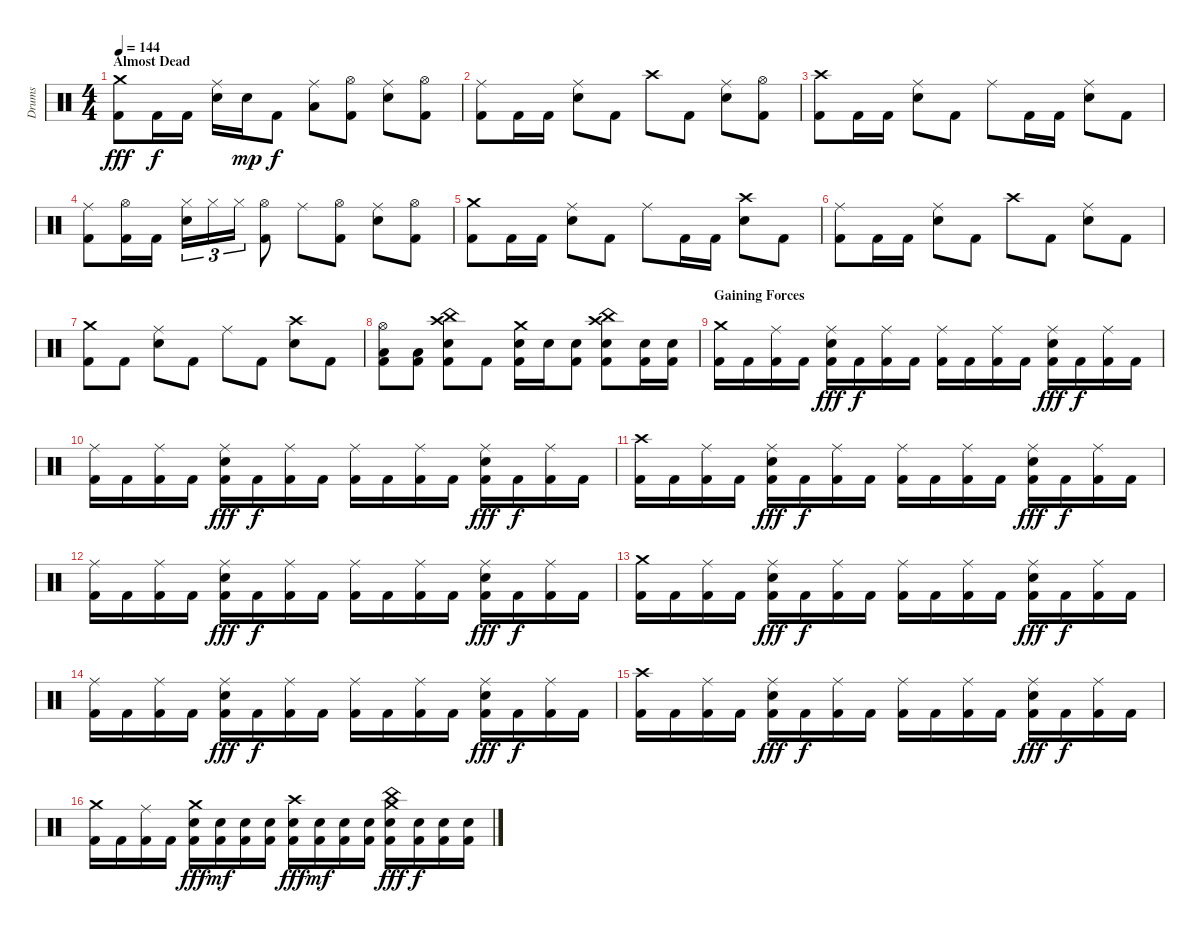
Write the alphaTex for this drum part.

\track ("Drums" "Drums") {instrument percussion}
\staff {score}
\articulation defaults
\ts (4 4)
\section ("" "Almost Dead")
\tempo 144
\clef neutral
\ks c
("Crash medium (hit)" "Kick (hit) 2").8{dy fff} "Kick (hit) 2".16{dy f} "Kick (hit) 2".16 ("Ride (middle)" "Snare (hit) 2").16 "Snare (hit) 2".16{dy mp} "Kick (hit) 2".8{dy f} ("Ride (middle)" "Low Tom (hit)").8 ("Hi-Hat (open)" "Kick (hit) 2").8 ("Ride (middle)" "Snare (hit) 2").8 ("Hi-Hat (open)" "Kick (hit) 2").8 |
("Ride (middle)" "Kick (hit) 2").8 "Kick (hit) 2".16 "Kick (hit) 2".16 ("Ride (middle)" "Snare (hit) 2").8 "Kick (hit) 2".8 "Crash high (hit)".8 "Kick (hit) 2".8 ("Ride (middle)" "Snare (hit) 2").8 ("Hi-Hat (open)" "Kick (hit) 2").8 |
("Crash high (hit)" "Kick (hit) 2").8 "Kick (hit) 2".16 "Kick (hit) 2".16 ("Ride (middle)" "Snare (hit) 2").8 "Kick (hit) 2".8 "Ride (middle)".8 "Kick (hit) 2".16 "Kick (hit) 2".16 ("Ride (middle)" "Snare (hit) 2").8 "Kick (hit) 2".8 |
("Ride (middle)" "Kick (hit) 2").8 ("Hi-Hat (open)" "Kick (hit) 2").16 "Kick (hit) 2".16 ("Hi-Hat (closed)" "Snare (hit) 2").16{tu (3 2)} "Hi-Hat (closed)".16{tu (3 2)} "Hi-Hat (closed)".16{tu (3 2)} ("Hi-Hat (open)" "Kick (hit) 2").8 "Ride (middle)".8 ("Hi-Hat (open)" "Kick (hit) 2").8 ("Ride (middle)" "Snare (hit) 2").8 ("Hi-Hat (open)" "Kick (hit) 2").8 |
("Crash medium (hit)" "Kick (hit) 2").8 "Kick (hit) 2".16 "Kick (hit) 2".16 ("Ride (middle)" "Snare (hit) 2").8 "Kick (hit) 2".8 "Ride (middle)".8 "Kick (hit) 2".16 "Kick (hit) 2".16 ("Crash high (hit)" "Snare (hit) 2").8 "Kick (hit) 2".8 |
("Ride (middle)" "Kick (hit) 2").8 "Kick (hit) 2".16 "Kick (hit) 2".16 ("Ride (middle)" "Snare (hit) 2").8 "Kick (hit) 2".8 "Crash high (hit)".8 "Kick (hit) 2".8 ("Ride (middle)" "Snare (hit) 2").8 "Kick (hit) 2".8 |
("Crash medium (hit)" "Kick (hit) 2").8 "Kick (hit) 2".8 ("Ride (middle)" "Snare (hit) 2").8 "Kick (hit) 2".8 "Ride (middle)".8 "Kick (hit) 2".8 ("Crash high (hit)" "Snare (hit) 2").8 "Kick (hit) 2".8 |
("Hi-Hat (open)" "Low Tom (hit)" "Kick (hit) 2").8 ("Low Tom (hit)" "Kick (hit) 2").8 ("Crash high (hit)" "China (hit)" "Snare (hit) 2" "Kick (hit) 2").8 "Kick (hit) 2".8 ("Crash medium (hit)" "Snare (hit) 2" "Kick (hit) 2").16 "Snare (hit) 2".16 ("Snare (hit) 2" "Kick (hit) 2").8 ("Crash high (hit)" "China (hit)" "Snare (hit) 2" "Kick (hit) 2").8 ("Snare (hit) 2" "Kick (hit) 2").16 ("Snare (hit) 2" "Kick (hit) 2").16 |
\section ("" "Gaining Forces")
("Crash medium (hit)" "Kick (hit) 2").16 "Kick (hit) 2".16 ("Ride (middle)" "Kick (hit) 2").16 "Kick (hit) 2".16 ("Ride (middle)" "Snare (hit) 2" "Kick (hit) 2").16{dy fff} "Kick (hit) 2".16{dy f} ("Ride (middle)" "Kick (hit) 2").16 "Kick (hit) 2".16 ("Ride (middle)" "Kick (hit) 2").16 "Kick (hit) 2".16 ("Ride (middle)" "Kick (hit) 2").16 "Kick (hit) 2".16 ("Ride (middle)" "Snare (hit) 2" "Kick (hit) 2").16{dy fff} "Kick (hit) 2".16{dy f} ("Ride (middle)" "Kick (hit) 2").16 "Kick (hit) 2".16 |
("Ride (middle)" "Kick (hit) 2").16 "Kick (hit) 2".16 ("Ride (middle)" "Kick (hit) 2").16 "Kick (hit) 2".16 ("Ride (middle)" "Snare (hit) 2" "Kick (hit) 2").16{dy fff} "Kick (hit) 2".16{dy f} ("Ride (middle)" "Kick (hit) 2").16 "Kick (hit) 2".16 ("Ride (middle)" "Kick (hit) 2").16 "Kick (hit) 2".16 ("Ride (middle)" "Kick (hit) 2").16 "Kick (hit) 2".16 ("Ride (middle)" "Snare (hit) 2" "Kick (hit) 2").16{dy fff} "Kick (hit) 2".16{dy f} ("Ride (middle)" "Kick (hit) 2").16 "Kick (hit) 2".16 |
("Crash high (hit)" "Kick (hit) 2").16 "Kick (hit) 2".16 ("Ride (middle)" "Kick (hit) 2").16 "Kick (hit) 2".16 ("Ride (middle)" "Snare (hit) 2" "Kick (hit) 2").16{dy fff} "Kick (hit) 2".16{dy f} ("Ride (middle)" "Kick (hit) 2").16 "Kick (hit) 2".16 ("Ride (middle)" "Kick (hit) 2").16 "Kick (hit) 2".16 ("Ride (middle)" "Kick (hit) 2").16 "Kick (hit) 2".16 ("Ride (middle)" "Snare (hit) 2" "Kick (hit) 2").16{dy fff} "Kick (hit) 2".16{dy f} ("Ride (middle)" "Kick (hit) 2").16 "Kick (hit) 2".16 |
("Ride (middle)" "Kick (hit) 2").16 "Kick (hit) 2".16 ("Ride (middle)" "Kick (hit) 2").16 "Kick (hit) 2".16 ("Ride (middle)" "Snare (hit) 2" "Kick (hit) 2").16{dy fff} "Kick (hit) 2".16{dy f} ("Ride (middle)" "Kick (hit) 2").16 "Kick (hit) 2".16 ("Ride (middle)" "Kick (hit) 2").16 "Kick (hit) 2".16 ("Ride (middle)" "Kick (hit) 2").16 "Kick (hit) 2".16 ("Ride (middle)" "Snare (hit) 2" "Kick (hit) 2").16{dy fff} "Kick (hit) 2".16{dy f} ("Ride (middle)" "Kick (hit) 2").16 "Kick (hit) 2".16 |
("Crash medium (hit)" "Kick (hit) 2").16 "Kick (hit) 2".16 ("Ride (middle)" "Kick (hit) 2").16 "Kick (hit) 2".16 ("Ride (middle)" "Snare (hit) 2" "Kick (hit) 2").16{dy fff} "Kick (hit) 2".16{dy f} ("Ride (middle)" "Kick (hit) 2").16 "Kick (hit) 2".16 ("Ride (middle)" "Kick (hit) 2").16 "Kick (hit) 2".16 ("Ride (middle)" "Kick (hit) 2").16 "Kick (hit) 2".16 ("Ride (middle)" "Snare (hit) 2" "Kick (hit) 2").16{dy fff} "Kick (hit) 2".16{dy f} ("Ride (middle)" "Kick (hit) 2").16 "Kick (hit) 2".16 |
("Ride (middle)" "Kick (hit) 2").16 "Kick (hit) 2".16 ("Ride (middle)" "Kick (hit) 2").16 "Kick (hit) 2".16 ("Ride (middle)" "Snare (hit) 2" "Kick (hit) 2").16{dy fff} "Kick (hit) 2".16{dy f} ("Ride (middle)" "Kick (hit) 2").16 "Kick (hit) 2".16 ("Ride (middle)" "Kick (hit) 2").16 "Kick (hit) 2".16 ("Ride (middle)" "Kick (hit) 2").16 "Kick (hit) 2".16 ("Ride (middle)" "Snare (hit) 2" "Kick (hit) 2").16{dy fff} "Kick (hit) 2".16{dy f} ("Ride (middle)" "Kick (hit) 2").16 "Kick (hit) 2".16 |
("Crash high (hit)" "Kick (hit) 2").16 "Kick (hit) 2".16 ("Ride (middle)" "Kick (hit) 2").16 "Kick (hit) 2".16 ("Ride (middle)" "Snare (hit) 2" "Kick (hit) 2").16{dy fff} "Kick (hit) 2".16{dy f} ("Ride (middle)" "Kick (hit) 2").16 "Kick (hit) 2".16 ("Ride (middle)" "Kick (hit) 2").16 "Kick (hit) 2".16 ("Ride (middle)" "Kick (hit) 2").16 "Kick (hit) 2".16 ("Ride (middle)" "Snare (hit) 2" "Kick (hit) 2").16{dy fff} "Kick (hit) 2".16{dy f} ("Ride (middle)" "Kick (hit) 2").16 "Kick (hit) 2".16 |
("Crash medium (hit)" "Kick (hit) 2").16 "Kick (hit) 2".16 ("Ride (middle)" "Kick (hit) 2").16 "Kick (hit) 2".16 ("Crash medium (hit)" "Snare (hit) 2" "Kick (hit) 2").16{dy fff} ("Snare (hit) 2" "Kick (hit) 2").16{dy mf} ("Snare (hit) 2" "Kick (hit) 2").16 ("Snare (hit) 2" "Kick (hit) 2").16 ("Crash high (hit)" "Snare (hit) 2" "Kick (hit) 2").16{dy fff} ("Snare (hit) 2" "Kick (hit) 2").16{dy mf} ("Snare (hit) 2" "Kick (hit) 2").16 ("Snare (hit) 2" "Kick (hit) 2").16 ("Crash medium (hit)" "China (hit)" "Snare (hit) 2" "Kick (hit) 2").16{dy fff} ("Snare (hit) 2" "Kick (hit) 2").16{dy f} ("Snare (hit) 2" "Kick (hit) 2").16 ("Snare (hit) 2" "Kick (hit) 2").16
